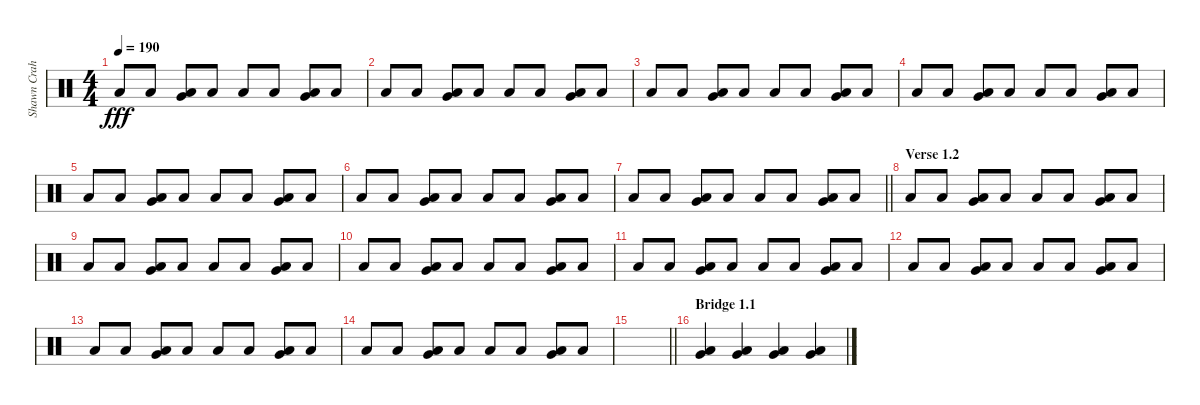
\track ("Shawn Crahan" "Shawn Crah") {instrument percussion}
\staff {score}
\articulation defaults
\ts (4 4)
\tempo 190
\clef neutral
\ks c "Low Floor Tom (hit)".8{dy fff} "Low Floor Tom (hit)".8
("Very Low Tom (hit)" "Low Floor Tom (hit)").8 "Low Floor Tom (hit)".8 "Low Floor Tom (hit)".8 "Low Floor Tom (hit)".8 ("Very Low Tom (hit)" "Low Floor Tom (hit)").8 "Low Floor Tom (hit)".8 |
"Low Floor Tom (hit)".8 "Low Floor Tom (hit)".8 ("Very Low Tom (hit)" "Low Floor Tom (hit)").8 "Low Floor Tom (hit)".8 "Low Floor Tom (hit)".8 "Low Floor Tom (hit)".8 ("Very Low Tom (hit)" "Low Floor Tom (hit)").8 "Low Floor Tom (hit)".8 |
"Low Floor Tom (hit)".8 "Low Floor Tom (hit)".8 ("Very Low Tom (hit)" "Low Floor Tom (hit)").8 "Low Floor Tom (hit)".8 "Low Floor Tom (hit)".8 "Low Floor Tom (hit)".8 ("Very Low Tom (hit)" "Low Floor Tom (hit)").8 "Low Floor Tom (hit)".8 |
"Low Floor Tom (hit)".8 "Low Floor Tom (hit)".8 ("Very Low Tom (hit)" "Low Floor Tom (hit)").8 "Low Floor Tom (hit)".8 "Low Floor Tom (hit)".8 "Low Floor Tom (hit)".8 ("Very Low Tom (hit)" "Low Floor Tom (hit)").8 "Low Floor Tom (hit)".8 |
"Low Floor Tom (hit)".8 "Low Floor Tom (hit)".8 ("Very Low Tom (hit)" "Low Floor Tom (hit)").8 "Low Floor Tom (hit)".8 "Low Floor Tom (hit)".8 "Low Floor Tom (hit)".8 ("Very Low Tom (hit)" "Low Floor Tom (hit)").8 "Low Floor Tom (hit)".8 |
"Low Floor Tom (hit)".8 "Low Floor Tom (hit)".8 ("Very Low Tom (hit)" "Low Floor Tom (hit)").8 "Low Floor Tom (hit)".8 "Low Floor Tom (hit)".8 "Low Floor Tom (hit)".8 ("Very Low Tom (hit)" "Low Floor Tom (hit)").8 "Low Floor Tom (hit)".8 |
\barLineRight lightlight "Low Floor Tom (hit)".8 "Low Floor Tom (hit)".8
("Very Low Tom (hit)" "Low Floor Tom (hit)").8 "Low Floor Tom (hit)".8 "Low Floor Tom (hit)".8 "Low Floor Tom (hit)".8 ("Very Low Tom (hit)" "Low Floor Tom (hit)").8 "Low Floor Tom (hit)".8 |
\section ("" "Verse 1.2")
"Low Floor Tom (hit)".8 "Low Floor Tom (hit)".8 ("Very Low Tom (hit)" "Low Floor Tom (hit)").8 "Low Floor Tom (hit)".8 "Low Floor Tom (hit)".8 "Low Floor Tom (hit)".8 ("Very Low Tom (hit)" "Low Floor Tom (hit)").8 "Low Floor Tom (hit)".8 |
"Low Floor Tom (hit)".8 "Low Floor Tom (hit)".8 ("Very Low Tom (hit)" "Low Floor Tom (hit)").8 "Low Floor Tom (hit)".8 "Low Floor Tom (hit)".8 "Low Floor Tom (hit)".8 ("Very Low Tom (hit)" "Low Floor Tom (hit)").8 "Low Floor Tom (hit)".8 |
"Low Floor Tom (hit)".8 "Low Floor Tom (hit)".8 ("Very Low Tom (hit)" "Low Floor Tom (hit)").8 "Low Floor Tom (hit)".8 "Low Floor Tom (hit)".8 "Low Floor Tom (hit)".8 ("Very Low Tom (hit)" "Low Floor Tom (hit)").8 "Low Floor Tom (hit)".8 |
"Low Floor Tom (hit)".8 "Low Floor Tom (hit)".8 ("Very Low Tom (hit)" "Low Floor Tom (hit)").8 "Low Floor Tom (hit)".8 "Low Floor Tom (hit)".8 "Low Floor Tom (hit)".8 ("Very Low Tom (hit)" "Low Floor Tom (hit)").8 "Low Floor Tom (hit)".8 |
"Low Floor Tom (hit)".8 "Low Floor Tom (hit)".8 ("Very Low Tom (hit)" "Low Floor Tom (hit)").8 "Low Floor Tom (hit)".8 "Low Floor Tom (hit)".8 "Low Floor Tom (hit)".8 ("Very Low Tom (hit)" "Low Floor Tom (hit)").8 "Low Floor Tom (hit)".8 |
"Low Floor Tom (hit)".8 "Low Floor Tom (hit)".8 ("Very Low Tom (hit)" "Low Floor Tom (hit)").8 "Low Floor Tom (hit)".8 "Low Floor Tom (hit)".8 "Low Floor Tom (hit)".8 ("Very Low Tom (hit)" "Low Floor Tom (hit)").8 "Low Floor Tom (hit)".8 |
"Low Floor Tom (hit)".8 "Low Floor Tom (hit)".8 ("Very Low Tom (hit)" "Low Floor Tom (hit)").8 "Low Floor Tom (hit)".8 "Low Floor Tom (hit)".8 "Low Floor Tom (hit)".8 ("Very Low Tom (hit)" "Low Floor Tom (hit)").8 "Low Floor Tom (hit)".8 |
\barLineRight lightlight
|
\section ("" "Bridge 1.1")
("Very Low Tom (hit)" "Low Floor Tom (hit)").4 ("Very Low Tom (hit)" "Low Floor Tom (hit)").4 ("Very Low Tom (hit)" "Low Floor Tom (hit)").4 ("Very Low Tom (hit)" "Low Floor Tom (hit)").4
